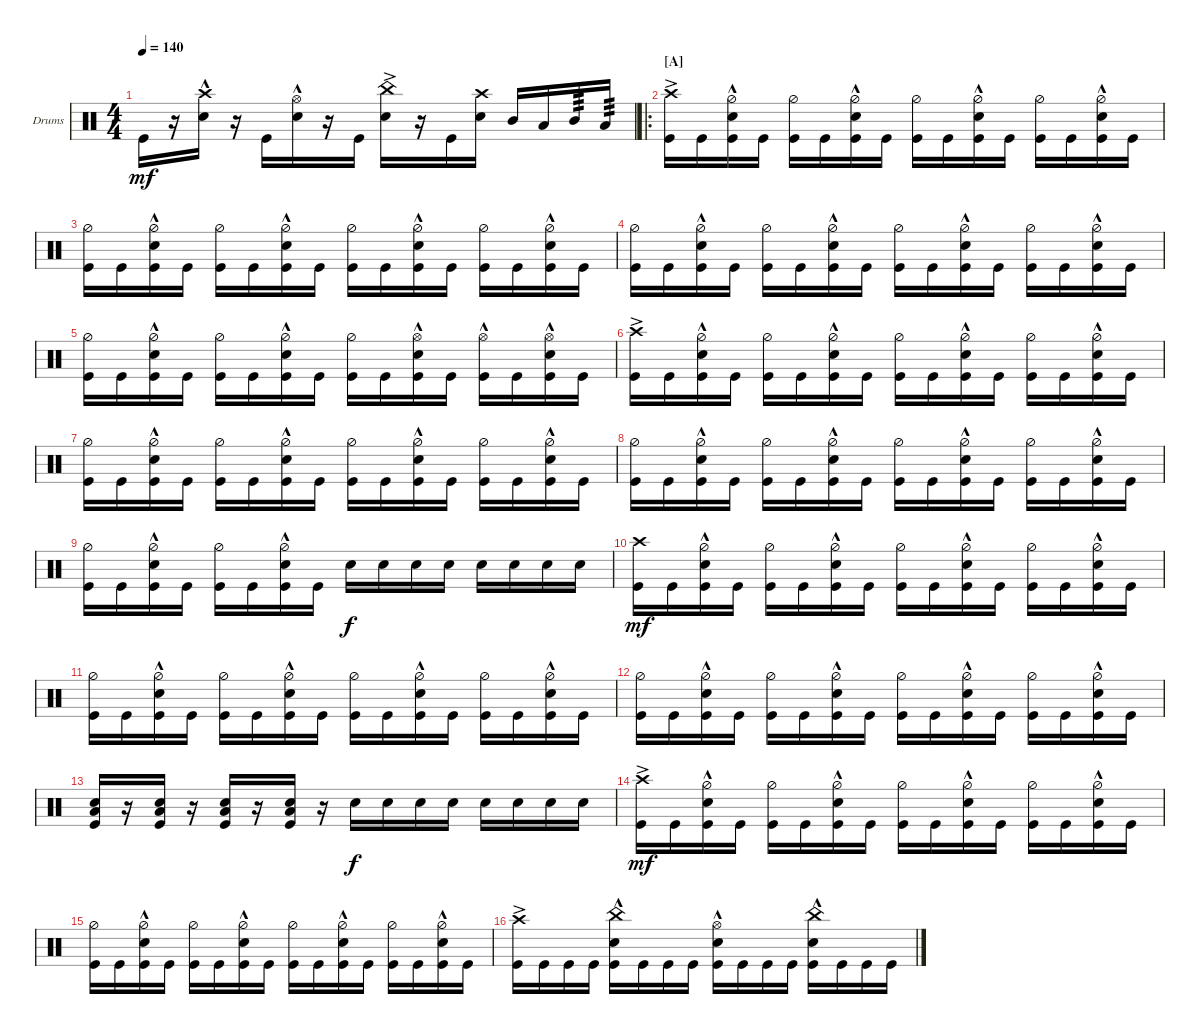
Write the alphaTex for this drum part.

\defaultSystemsLayout 4
\bracketExtendMode groupsimilarinstruments
\firstSystemTrackNameOrientation horizontal
\otherSystemsTrackNameOrientation horizontal
\track ("Drumkit" "Drums") {instrument percussion}
\staff {score}
\articulation defaults
\ts (4 4)
\tempo 140
\clef neutral
\ks c "Kick (hit)".16{dy mf}
r.16 ("Snare (hit) 2" "Crash high (hit)"{hac}).16 r.16 "Kick (hit)".16 ("Snare (hit) 2" "Hi-Hat (open)"{hac}).16 r.16 "Kick (hit)".16 ("Snare (hit) 2" "China (hit)"{ac}).16 r.16 "Kick (hit)".16 ("Snare (hit) 2" "Crash high (hit)").16 "Mid Tom (hit)".16 "Low Tom (hit)".16 "Mid Tom (hit)".16{tp 3} "Low Tom (hit)".16{tp 3} |
\ro
\section ("A" "")
("Kick (hit)" "Crash high (hit)"{ac}).16 "Kick (hit)".16 ("Kick (hit)" "Snare (hit) 2"{hac} "Hi-Hat (half)").16 "Kick (hit)".16 ("Kick (hit)" "Hi-Hat (half)").16 "Kick (hit)".16 ("Kick (hit)" "Snare (hit) 2"{hac} "Hi-Hat (half)").16 "Kick (hit)".16 ("Kick (hit)" "Hi-Hat (half)").16 "Kick (hit)".16 ("Kick (hit)" "Snare (hit) 2"{hac} "Hi-Hat (half)").16 "Kick (hit)".16 ("Kick (hit)" "Hi-Hat (half)").16 "Kick (hit)".16 ("Kick (hit)" "Snare (hit) 2"{hac} "Hi-Hat (half)").16 "Kick (hit)".16 |
("Kick (hit)" "Hi-Hat (half)").16 "Kick (hit)".16 ("Kick (hit)" "Snare (hit) 2"{hac} "Hi-Hat (half)").16 "Kick (hit)".16 ("Kick (hit)" "Hi-Hat (half)").16 "Kick (hit)".16 ("Kick (hit)" "Snare (hit) 2"{hac} "Hi-Hat (half)").16 "Kick (hit)".16 ("Kick (hit)" "Hi-Hat (half)").16 "Kick (hit)".16 ("Kick (hit)" "Snare (hit) 2"{hac} "Hi-Hat (half)").16 "Kick (hit)".16 ("Kick (hit)" "Hi-Hat (half)").16 "Kick (hit)".16 ("Kick (hit)" "Snare (hit) 2"{hac} "Hi-Hat (half)").16 "Kick (hit)".16 |
("Kick (hit)" "Hi-Hat (half)").16 "Kick (hit)".16 ("Kick (hit)" "Snare (hit) 2"{hac} "Hi-Hat (half)").16 "Kick (hit)".16 ("Kick (hit)" "Hi-Hat (half)").16 "Kick (hit)".16 ("Kick (hit)" "Snare (hit) 2"{hac} "Hi-Hat (half)").16 "Kick (hit)".16 ("Kick (hit)" "Hi-Hat (half)").16 "Kick (hit)".16 ("Kick (hit)" "Snare (hit) 2"{hac} "Hi-Hat (half)").16 "Kick (hit)".16 ("Kick (hit)" "Hi-Hat (half)").16 "Kick (hit)".16 ("Kick (hit)" "Snare (hit) 2"{hac} "Hi-Hat (half)").16 "Kick (hit)".16 |
("Kick (hit)" "Hi-Hat (half)").16 "Kick (hit)".16 ("Kick (hit)" "Snare (hit) 2"{hac} "Hi-Hat (half)").16 "Kick (hit)".16 ("Kick (hit)" "Hi-Hat (half)").16 "Kick (hit)".16 ("Kick (hit)" "Snare (hit) 2"{hac} "Hi-Hat (half)").16 "Kick (hit)".16 ("Kick (hit)" "Hi-Hat (half)").16 "Kick (hit)".16 ("Kick (hit)" "Snare (hit) 2"{hac} "Hi-Hat (open)"{hac}).16 "Kick (hit)".16 ("Kick (hit)" "Hi-Hat (open)"{hac}).16 "Kick (hit)".16 ("Kick (hit)" "Snare (hit) 2"{hac} "Hi-Hat (open)"{hac}).16 "Kick (hit)".16 |
("Kick (hit)" "Crash high (hit)"{ac}).16 "Kick (hit)".16 ("Kick (hit)" "Snare (hit) 2"{hac} "Hi-Hat (half)").16 "Kick (hit)".16 ("Kick (hit)" "Hi-Hat (half)").16 "Kick (hit)".16 ("Kick (hit)" "Snare (hit) 2"{hac} "Hi-Hat (half)").16 "Kick (hit)".16 ("Kick (hit)" "Hi-Hat (half)").16 "Kick (hit)".16 ("Kick (hit)" "Snare (hit) 2"{hac} "Hi-Hat (half)").16 "Kick (hit)".16 ("Kick (hit)" "Hi-Hat (half)").16 "Kick (hit)".16 ("Kick (hit)" "Snare (hit) 2"{hac} "Hi-Hat (half)").16 "Kick (hit)".16 |
("Kick (hit)" "Hi-Hat (half)").16 "Kick (hit)".16 ("Kick (hit)" "Snare (hit) 2"{hac} "Hi-Hat (half)").16 "Kick (hit)".16 ("Kick (hit)" "Hi-Hat (half)").16 "Kick (hit)".16 ("Kick (hit)" "Snare (hit) 2"{hac} "Hi-Hat (half)").16 "Kick (hit)".16 ("Kick (hit)" "Hi-Hat (half)").16 "Kick (hit)".16 ("Kick (hit)" "Snare (hit) 2"{hac} "Hi-Hat (half)").16 "Kick (hit)".16 ("Kick (hit)" "Hi-Hat (half)").16 "Kick (hit)".16 ("Kick (hit)" "Snare (hit) 2"{hac} "Hi-Hat (half)").16 "Kick (hit)".16 |
("Kick (hit)" "Hi-Hat (half)").16 "Kick (hit)".16 ("Kick (hit)" "Snare (hit) 2"{hac} "Hi-Hat (half)").16 "Kick (hit)".16 ("Kick (hit)" "Hi-Hat (half)").16 "Kick (hit)".16 ("Kick (hit)" "Snare (hit) 2"{hac} "Hi-Hat (half)").16 "Kick (hit)".16 ("Kick (hit)" "Hi-Hat (half)").16 "Kick (hit)".16 ("Kick (hit)" "Snare (hit) 2"{hac} "Hi-Hat (half)").16 "Kick (hit)".16 ("Kick (hit)" "Hi-Hat (half)").16 "Kick (hit)".16 ("Kick (hit)" "Snare (hit) 2"{hac} "Hi-Hat (half)").16 "Kick (hit)".16 |
("Kick (hit)" "Hi-Hat (half)").16 "Kick (hit)".16 ("Kick (hit)" "Snare (hit) 2"{hac} "Hi-Hat (half)").16 "Kick (hit)".16 ("Kick (hit)" "Hi-Hat (half)").16 "Kick (hit)".16 ("Kick (hit)" "Snare (hit) 2"{hac} "Hi-Hat (half)").16 "Kick (hit)".16 "Snare (hit) 2".16{dy f} "Snare (hit) 2".16 "Snare (hit) 2".16 "Snare (hit) 2".16 "Snare (hit) 2".16 "Snare (hit) 2".16 "Snare (hit) 2".16 "Snare (hit) 2".16 |
("Kick (hit)" "Crash high (hit)").16{dy mf} "Kick (hit)".16 ("Kick (hit)" "Snare (hit) 2"{hac} "Hi-Hat (half)").16 "Kick (hit)".16 ("Kick (hit)" "Hi-Hat (half)").16 "Kick (hit)".16 ("Kick (hit)" "Snare (hit) 2"{hac} "Hi-Hat (half)").16 "Kick (hit)".16 ("Kick (hit)" "Hi-Hat (half)").16 "Kick (hit)".16 ("Kick (hit)" "Snare (hit) 2"{hac} "Hi-Hat (half)").16 "Kick (hit)".16 ("Kick (hit)" "Hi-Hat (half)").16 "Kick (hit)".16 ("Kick (hit)" "Snare (hit) 2"{hac} "Hi-Hat (half)").16 "Kick (hit)".16 |
("Kick (hit)" "Hi-Hat (half)").16 "Kick (hit)".16 ("Kick (hit)" "Snare (hit) 2"{hac} "Hi-Hat (half)").16 "Kick (hit)".16 ("Kick (hit)" "Hi-Hat (half)").16 "Kick (hit)".16 ("Kick (hit)" "Snare (hit) 2"{hac} "Hi-Hat (half)").16 "Kick (hit)".16 ("Kick (hit)" "Hi-Hat (half)").16 "Kick (hit)".16 ("Kick (hit)" "Snare (hit) 2"{hac} "Hi-Hat (half)").16 "Kick (hit)".16 ("Kick (hit)" "Hi-Hat (half)").16 "Kick (hit)".16 ("Kick (hit)" "Snare (hit) 2"{hac} "Hi-Hat (half)").16 "Kick (hit)".16 |
("Kick (hit)" "Hi-Hat (half)").16 "Kick (hit)".16 ("Kick (hit)" "Snare (hit) 2"{hac} "Hi-Hat (half)").16 "Kick (hit)".16 ("Kick (hit)" "Hi-Hat (half)").16 "Kick (hit)".16 ("Kick (hit)" "Snare (hit) 2"{hac} "Hi-Hat (half)").16 "Kick (hit)".16 ("Kick (hit)" "Hi-Hat (half)").16 "Kick (hit)".16 ("Kick (hit)" "Snare (hit) 2"{hac} "Hi-Hat (half)").16 "Kick (hit)".16 ("Kick (hit)" "Hi-Hat (half)").16 "Kick (hit)".16 ("Kick (hit)" "Snare (hit) 2"{hac} "Hi-Hat (half)").16 "Kick (hit)".16 |
("Kick (hit)" "Low Tom (hit)" "Snare (hit) 2").16 r.16 ("Kick (hit)" "Low Tom (hit)" "Snare (hit) 2").16 r.16 ("Kick (hit)" "Low Tom (hit)" "Snare (hit) 2").16 r.16 ("Kick (hit)" "Low Tom (hit)" "Snare (hit) 2").16 r.16 "Snare (hit) 2".16{dy f} "Snare (hit) 2".16 "Snare (hit) 2".16 "Snare (hit) 2".16 "Snare (hit) 2".16 "Snare (hit) 2".16 "Snare (hit) 2".16 "Snare (hit) 2".16 |
("Kick (hit)" "Crash high (hit)"{ac}).16{dy mf} "Kick (hit)".16 ("Kick (hit)" "Snare (hit) 2"{hac} "Hi-Hat (half)").16 "Kick (hit)".16 ("Kick (hit)" "Hi-Hat (half)").16 "Kick (hit)".16 ("Kick (hit)" "Snare (hit) 2"{hac} "Hi-Hat (half)").16 "Kick (hit)".16 ("Kick (hit)" "Hi-Hat (half)").16 "Kick (hit)".16 ("Kick (hit)" "Snare (hit) 2"{hac} "Hi-Hat (half)").16 "Kick (hit)".16 ("Kick (hit)" "Hi-Hat (half)").16 "Kick (hit)".16 ("Kick (hit)" "Snare (hit) 2"{hac} "Hi-Hat (half)").16 "Kick (hit)".16 |
("Kick (hit)" "Hi-Hat (half)").16 "Kick (hit)".16 ("Kick (hit)" "Snare (hit) 2"{hac} "Hi-Hat (half)").16 "Kick (hit)".16 ("Kick (hit)" "Hi-Hat (half)").16 "Kick (hit)".16 ("Kick (hit)" "Snare (hit) 2"{hac} "Hi-Hat (half)").16 "Kick (hit)".16 ("Kick (hit)" "Hi-Hat (half)").16 "Kick (hit)".16 ("Kick (hit)" "Snare (hit) 2"{hac} "Hi-Hat (half)").16 "Kick (hit)".16 ("Kick (hit)" "Hi-Hat (half)").16 "Kick (hit)".16 ("Kick (hit)" "Snare (hit) 2"{hac} "Hi-Hat (half)").16 "Kick (hit)".16 |
("Kick (hit)" "Crash high (hit)"{ac}).16 "Kick (hit)".16 "Kick (hit)".16 "Kick (hit)".16 ("Kick (hit)" "Snare (hit) 2"{hac} "China (hit)"{hac}).16 "Kick (hit)".16 "Kick (hit)".16 "Kick (hit)".16 ("Kick (hit)" "Snare (hit) 2"{hac} "Hi-Hat (open)"{hac}).16 "Kick (hit)".16 "Kick (hit)".16 "Kick (hit)".16 ("Kick (hit)" "Snare (hit) 2"{hac} "China (hit)"{hac}).16 "Kick (hit)".16 "Kick (hit)".16 "Kick (hit)".16
